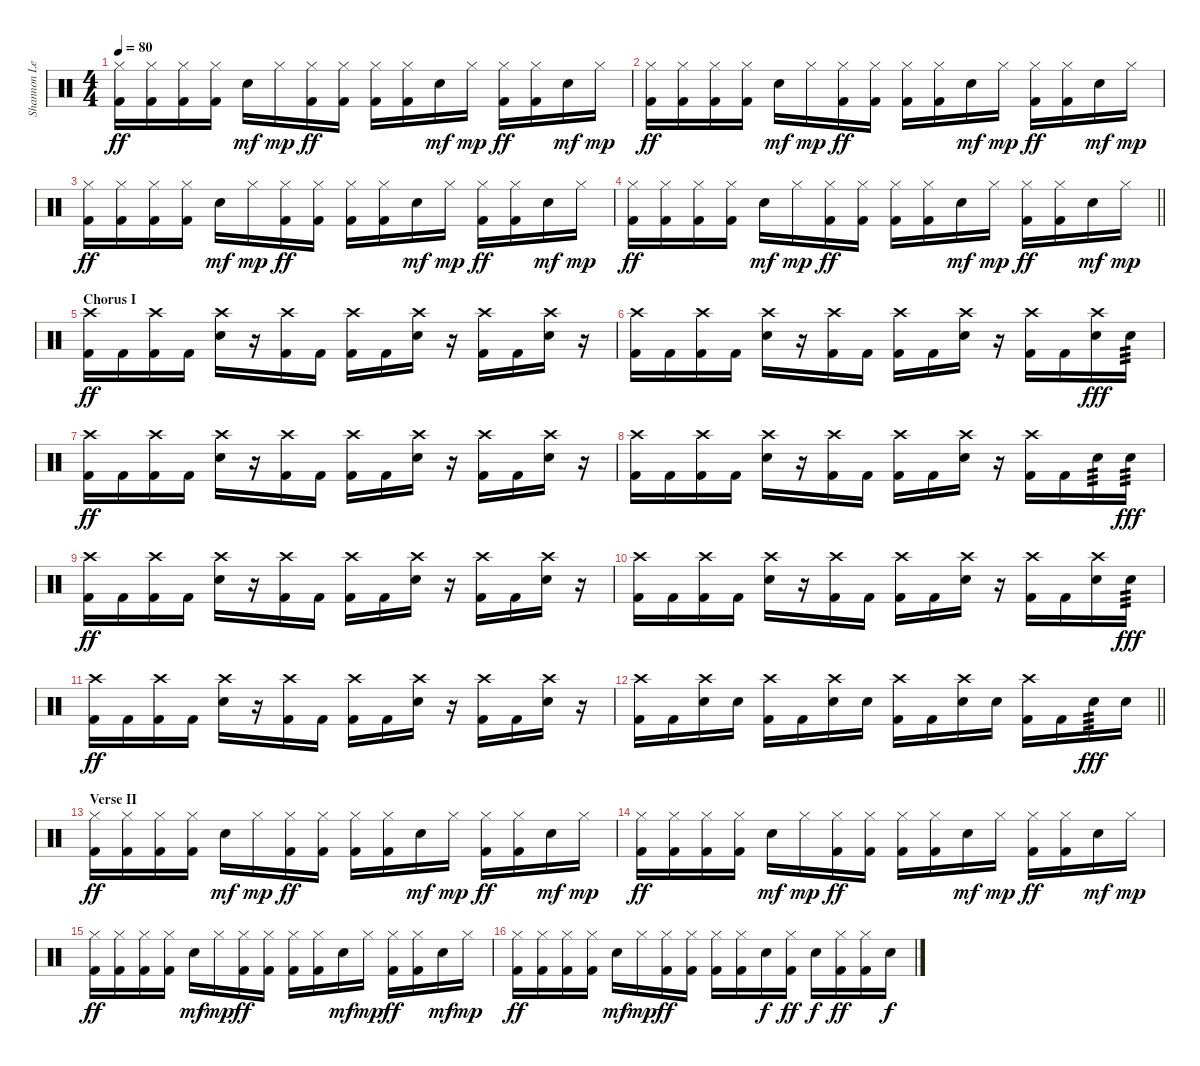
\track ("Shannon Leto (Drums)" "Shannon Le") {instrument percussion}
\staff {score}
\articulation defaults
\ts (4 4)
\tempo 80
\clef neutral
\ks c
("Hi-Hat (closed)" "Kick (hit) 2").16{dy ff} ("Hi-Hat (closed)" "Kick (hit) 2").16 ("Hi-Hat (closed)" "Kick (hit) 2").16 ("Hi-Hat (closed)" "Kick (hit) 2").16 "Snare (hit) 2".16{dy mf} "Hi-Hat (closed)".16{dy mp} ("Hi-Hat (closed)" "Kick (hit) 2").16{dy ff} ("Hi-Hat (closed)" "Kick (hit) 2").16 ("Hi-Hat (closed)" "Kick (hit) 2").16 ("Hi-Hat (closed)" "Kick (hit) 2").16 "Snare (hit) 2".16{dy mf} "Hi-Hat (closed)".16{dy mp} ("Hi-Hat (closed)" "Kick (hit) 2").16{dy ff} ("Hi-Hat (closed)" "Kick (hit) 2").16 "Snare (hit) 2".16{dy mf} "Hi-Hat (closed)".16{dy mp} |
("Hi-Hat (closed)" "Kick (hit) 2").16{dy ff} ("Hi-Hat (closed)" "Kick (hit) 2").16 ("Hi-Hat (closed)" "Kick (hit) 2").16 ("Hi-Hat (closed)" "Kick (hit) 2").16 "Snare (hit) 2".16{dy mf} "Hi-Hat (closed)".16{dy mp} ("Hi-Hat (closed)" "Kick (hit) 2").16{dy ff} ("Hi-Hat (closed)" "Kick (hit) 2").16 ("Hi-Hat (closed)" "Kick (hit) 2").16 ("Hi-Hat (closed)" "Kick (hit) 2").16 "Snare (hit) 2".16{dy mf} "Hi-Hat (closed)".16{dy mp} ("Hi-Hat (closed)" "Kick (hit) 2").16{dy ff} ("Hi-Hat (closed)" "Kick (hit) 2").16 "Snare (hit) 2".16{dy mf} "Hi-Hat (closed)".16{dy mp} |
("Hi-Hat (closed)" "Kick (hit) 2").16{dy ff} ("Hi-Hat (closed)" "Kick (hit) 2").16 ("Hi-Hat (closed)" "Kick (hit) 2").16 ("Hi-Hat (closed)" "Kick (hit) 2").16 "Snare (hit) 2".16{dy mf} "Hi-Hat (closed)".16{dy mp} ("Hi-Hat (closed)" "Kick (hit) 2").16{dy ff} ("Hi-Hat (closed)" "Kick (hit) 2").16 ("Hi-Hat (closed)" "Kick (hit) 2").16 ("Hi-Hat (closed)" "Kick (hit) 2").16 "Snare (hit) 2".16{dy mf} "Hi-Hat (closed)".16{dy mp} ("Hi-Hat (closed)" "Kick (hit) 2").16{dy ff} ("Hi-Hat (closed)" "Kick (hit) 2").16 "Snare (hit) 2".16{dy mf} "Hi-Hat (closed)".16{dy mp} |
\barLineRight lightlight
("Hi-Hat (closed)" "Kick (hit) 2").16{dy ff} ("Hi-Hat (closed)" "Kick (hit) 2").16 ("Hi-Hat (closed)" "Kick (hit) 2").16 ("Hi-Hat (closed)" "Kick (hit) 2").16 "Snare (hit) 2".16{dy mf} "Hi-Hat (closed)".16{dy mp} ("Hi-Hat (closed)" "Kick (hit) 2").16{dy ff} ("Hi-Hat (closed)" "Kick (hit) 2").16 ("Hi-Hat (closed)" "Kick (hit) 2").16 ("Hi-Hat (closed)" "Kick (hit) 2").16 "Snare (hit) 2".16{dy mf} "Hi-Hat (closed)".16{dy mp} ("Hi-Hat (closed)" "Kick (hit) 2").16{dy ff} ("Hi-Hat (closed)" "Kick (hit) 2").16 "Snare (hit) 2".16{dy mf} "Hi-Hat (closed)".16{dy mp} |
\section ("" "Chorus I")
("Crash high (hit)" "Kick (hit) 2").16{dy ff} "Kick (hit) 2".16 ("Crash high (hit)" "Kick (hit) 2").16 "Kick (hit) 2".16 ("Crash high (hit)" "Snare (hit) 2").16 r.16 ("Crash high (hit)" "Kick (hit) 2").16 "Kick (hit) 2".16 ("Crash high (hit)" "Kick (hit) 2").16 "Kick (hit) 2".16 ("Crash high (hit)" "Snare (hit) 2").16 r.16 ("Crash high (hit)" "Kick (hit) 2").16 "Kick (hit) 2".16 ("Crash high (hit)" "Snare (hit) 2").16 r.16 |
("Crash high (hit)" "Kick (hit) 2").16 "Kick (hit) 2".16 ("Crash high (hit)" "Kick (hit) 2").16 "Kick (hit) 2".16 ("Crash high (hit)" "Snare (hit) 2").16 r.16 ("Crash high (hit)" "Kick (hit) 2").16 "Kick (hit) 2".16 ("Crash high (hit)" "Kick (hit) 2").16 "Kick (hit) 2".16 ("Crash high (hit)" "Snare (hit) 2").16 r.16 ("Crash high (hit)" "Kick (hit) 2").16 "Kick (hit) 2".16 ("Crash high (hit)" "Snare (hit) 2").16{dy fff} "Snare (hit) 2".16{tp 3} |
("Crash high (hit)" "Kick (hit) 2").16{dy ff} "Kick (hit) 2".16 ("Crash high (hit)" "Kick (hit) 2").16 "Kick (hit) 2".16 ("Crash high (hit)" "Snare (hit) 2").16 r.16 ("Crash high (hit)" "Kick (hit) 2").16 "Kick (hit) 2".16 ("Crash high (hit)" "Kick (hit) 2").16 "Kick (hit) 2".16 ("Crash high (hit)" "Snare (hit) 2").16 r.16 ("Crash high (hit)" "Kick (hit) 2").16 "Kick (hit) 2".16 ("Crash high (hit)" "Snare (hit) 2").16 r.16 |
("Crash high (hit)" "Kick (hit) 2").16 "Kick (hit) 2".16 ("Crash high (hit)" "Kick (hit) 2").16 "Kick (hit) 2".16 ("Crash high (hit)" "Snare (hit) 2").16 r.16 ("Crash high (hit)" "Kick (hit) 2").16 "Kick (hit) 2".16 ("Crash high (hit)" "Kick (hit) 2").16 "Kick (hit) 2".16 ("Crash high (hit)" "Snare (hit) 2").16 r.16 ("Crash high (hit)" "Kick (hit) 2").16 "Kick (hit) 2".16 "Snare (hit) 2".16{tp 3} "Snare (hit) 2".16{tp 3 dy fff} |
("Crash high (hit)" "Kick (hit) 2").16{dy ff} "Kick (hit) 2".16 ("Crash high (hit)" "Kick (hit) 2").16 "Kick (hit) 2".16 ("Crash high (hit)" "Snare (hit) 2").16 r.16 ("Crash high (hit)" "Kick (hit) 2").16 "Kick (hit) 2".16 ("Crash high (hit)" "Kick (hit) 2").16 "Kick (hit) 2".16 ("Crash high (hit)" "Snare (hit) 2").16 r.16 ("Crash high (hit)" "Kick (hit) 2").16 "Kick (hit) 2".16 ("Crash high (hit)" "Snare (hit) 2").16 r.16 |
("Crash high (hit)" "Kick (hit) 2").16 "Kick (hit) 2".16 ("Crash high (hit)" "Kick (hit) 2").16 "Kick (hit) 2".16 ("Crash high (hit)" "Snare (hit) 2").16 r.16 ("Crash high (hit)" "Kick (hit) 2").16 "Kick (hit) 2".16 ("Crash high (hit)" "Kick (hit) 2").16 "Kick (hit) 2".16 ("Crash high (hit)" "Snare (hit) 2").16 r.16 ("Crash high (hit)" "Kick (hit) 2").16 "Kick (hit) 2".16 ("Crash high (hit)" "Snare (hit) 2").16 "Snare (hit) 2".16{tp 3 dy fff} |
("Crash high (hit)" "Kick (hit) 2").16{dy ff} "Kick (hit) 2".16 ("Crash high (hit)" "Kick (hit) 2").16 "Kick (hit) 2".16 ("Crash high (hit)" "Snare (hit) 2").16 r.16 ("Crash high (hit)" "Kick (hit) 2").16 "Kick (hit) 2".16 ("Crash high (hit)" "Kick (hit) 2").16 "Kick (hit) 2".16 ("Crash high (hit)" "Snare (hit) 2").16 r.16 ("Crash high (hit)" "Kick (hit) 2").16 "Kick (hit) 2".16 ("Crash high (hit)" "Snare (hit) 2").16 r.16 |
\barLineRight lightlight
("Crash high (hit)" "Kick (hit) 2").16 "Kick (hit) 2".16 ("Crash high (hit)" "Snare (hit) 2").16 "Snare (hit) 2".16 ("Crash high (hit)" "Kick (hit) 2").16 "Kick (hit) 2".16 ("Crash high (hit)" "Snare (hit) 2").16 "Snare (hit) 2".16 ("Crash high (hit)" "Kick (hit) 2").16 "Kick (hit) 2".16 ("Crash high (hit)" "Snare (hit) 2").16 "Snare (hit) 2".16 ("Crash high (hit)" "Kick (hit) 2").16 "Kick (hit) 2".16 "Snare (hit) 2".16{tp 3 dy fff} "Snare (hit) 2".16 |
\section ("" "Verse II")
("Hi-Hat (closed)" "Kick (hit) 2").16{dy ff} ("Hi-Hat (closed)" "Kick (hit) 2").16 ("Hi-Hat (closed)" "Kick (hit) 2").16 ("Hi-Hat (closed)" "Kick (hit) 2").16 "Snare (hit) 2".16{dy mf} "Hi-Hat (closed)".16{dy mp} ("Hi-Hat (closed)" "Kick (hit) 2").16{dy ff} ("Hi-Hat (closed)" "Kick (hit) 2").16 ("Hi-Hat (closed)" "Kick (hit) 2").16 ("Hi-Hat (closed)" "Kick (hit) 2").16 "Snare (hit) 2".16{dy mf} "Hi-Hat (closed)".16{dy mp} ("Hi-Hat (closed)" "Kick (hit) 2").16{dy ff} ("Hi-Hat (closed)" "Kick (hit) 2").16 "Snare (hit) 2".16{dy mf} "Hi-Hat (closed)".16{dy mp} |
("Hi-Hat (closed)" "Kick (hit) 2").16{dy ff} ("Hi-Hat (closed)" "Kick (hit) 2").16 ("Hi-Hat (closed)" "Kick (hit) 2").16 ("Hi-Hat (closed)" "Kick (hit) 2").16 "Snare (hit) 2".16{dy mf} "Hi-Hat (closed)".16{dy mp} ("Hi-Hat (closed)" "Kick (hit) 2").16{dy ff} ("Hi-Hat (closed)" "Kick (hit) 2").16 ("Hi-Hat (closed)" "Kick (hit) 2").16 ("Hi-Hat (closed)" "Kick (hit) 2").16 "Snare (hit) 2".16{dy mf} "Hi-Hat (closed)".16{dy mp} ("Hi-Hat (closed)" "Kick (hit) 2").16{dy ff} ("Hi-Hat (closed)" "Kick (hit) 2").16 "Snare (hit) 2".16{dy mf} "Hi-Hat (closed)".16{dy mp} |
("Hi-Hat (closed)" "Kick (hit) 2").16{dy ff} ("Hi-Hat (closed)" "Kick (hit) 2").16 ("Hi-Hat (closed)" "Kick (hit) 2").16 ("Hi-Hat (closed)" "Kick (hit) 2").16 "Snare (hit) 2".16{dy mf} "Hi-Hat (closed)".16{dy mp} ("Hi-Hat (closed)" "Kick (hit) 2").16{dy ff} ("Hi-Hat (closed)" "Kick (hit) 2").16 ("Hi-Hat (closed)" "Kick (hit) 2").16 ("Hi-Hat (closed)" "Kick (hit) 2").16 "Snare (hit) 2".16{dy mf} "Hi-Hat (closed)".16{dy mp} ("Hi-Hat (closed)" "Kick (hit) 2").16{dy ff} ("Hi-Hat (closed)" "Kick (hit) 2").16 "Snare (hit) 2".16{dy mf} "Hi-Hat (closed)".16{dy mp} |
("Hi-Hat (closed)" "Kick (hit) 2").16{dy ff} ("Hi-Hat (closed)" "Kick (hit) 2").16 ("Hi-Hat (closed)" "Kick (hit) 2").16 ("Hi-Hat (closed)" "Kick (hit) 2").16 "Snare (hit) 2".16{dy mf} "Hi-Hat (closed)".16{dy mp} ("Hi-Hat (closed)" "Kick (hit) 2").16{dy ff} ("Hi-Hat (closed)" "Kick (hit) 2").16 ("Hi-Hat (closed)" "Kick (hit) 2").16 ("Hi-Hat (closed)" "Kick (hit) 2").16 "Snare (hit) 2".16{dy f} ("Hi-Hat (closed)" "Kick (hit) 2").16{dy ff} "Snare (hit) 2".16{dy f} ("Hi-Hat (closed)" "Kick (hit) 2").16{dy ff} ("Hi-Hat (closed)" "Kick (hit) 2").16 "Snare (hit) 2".16{dy f}
